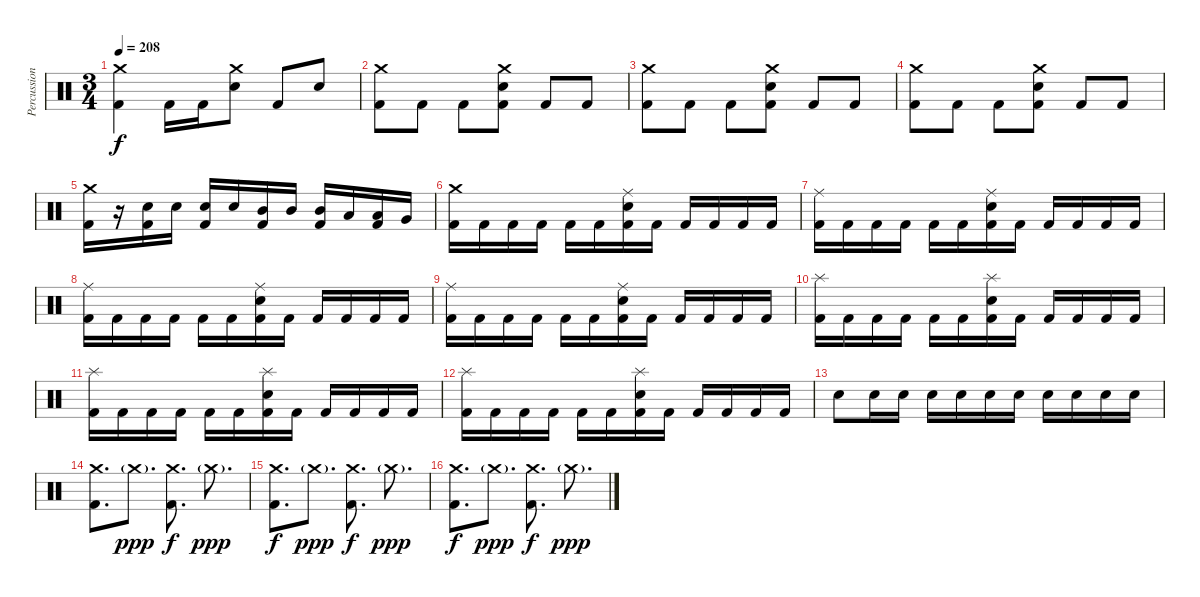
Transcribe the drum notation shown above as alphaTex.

\track ("Percussion" "Percussion") {instrument percussion}
\staff {score}
\articulation defaults
\ts (3 4)
\tempo 208
\clef neutral
\ks c
("Crash medium (hit)" "Kick (hit) 2").4{dy f} "Kick (hit) 2".16 "Kick (hit) 2".16 ("Crash medium (hit)" "Electric Snare (hit)").8 "Kick (hit) 2".8 "Electric Snare (hit)".8 |
("Crash medium (hit)" "Kick (hit) 2").8 "Kick (hit) 2".8 "Kick (hit) 2".8 ("Crash medium (hit)" "Electric Snare (hit)" "Kick (hit) 2").8 "Kick (hit) 2".8 "Kick (hit) 2".8 |
("Crash medium (hit)" "Kick (hit) 2").8 "Kick (hit) 2".8 "Kick (hit) 2".8 ("Crash medium (hit)" "Electric Snare (hit)" "Kick (hit) 2").8 "Kick (hit) 2".8 "Kick (hit) 2".8 |
("Crash medium (hit)" "Kick (hit) 2").8 "Kick (hit) 2".8 "Kick (hit) 2".8 ("Crash medium (hit)" "Electric Snare (hit)" "Kick (hit) 2").8 "Kick (hit) 2".8 "Kick (hit) 2".8 |
("Crash medium (hit)" "Kick (hit) 2").16 r.16 ("Electric Snare (hit)" "Kick (hit) 2").16 "Electric Snare (hit)".16 ("Electric Snare (hit)" "Kick (hit) 2").16 "Electric Snare (hit)".16 ("Mid Tom (hit)" "Kick (hit) 2").16 "Mid Tom (hit)".16 ("Mid Tom (hit)" "Kick (hit) 2").16 "Low Tom (hit)".16 ("Low Tom (hit)" "Kick (hit) 2").16 "Very Low Tom (hit)".16 |
("Crash medium (hit)" "Kick (hit) 2").16 "Kick (hit) 2".16 "Kick (hit) 2".16 "Kick (hit) 2".16 "Kick (hit) 2".16 "Kick (hit) 2".16 ("Ride (middle)" "Electric Snare (hit)" "Kick (hit) 2").16 "Kick (hit) 2".16 "Kick (hit) 2".16 "Kick (hit) 2".16 "Kick (hit) 2".16 "Kick (hit) 2".16 |
("Ride (middle)" "Kick (hit) 2").16 "Kick (hit) 2".16 "Kick (hit) 2".16 "Kick (hit) 2".16 "Kick (hit) 2".16 "Kick (hit) 2".16 ("Ride (middle)" "Electric Snare (hit)" "Kick (hit) 2").16 "Kick (hit) 2".16 "Kick (hit) 2".16 "Kick (hit) 2".16 "Kick (hit) 2".16 "Kick (hit) 2".16 |
("Ride (middle)" "Kick (hit) 2").16 "Kick (hit) 2".16 "Kick (hit) 2".16 "Kick (hit) 2".16 "Kick (hit) 2".16 "Kick (hit) 2".16 ("Ride (middle)" "Electric Snare (hit)" "Kick (hit) 2").16 "Kick (hit) 2".16 "Kick (hit) 2".16 "Kick (hit) 2".16 "Kick (hit) 2".16 "Kick (hit) 2".16 |
("Ride (middle)" "Kick (hit) 2").16 "Kick (hit) 2".16 "Kick (hit) 2".16 "Kick (hit) 2".16 "Kick (hit) 2".16 "Kick (hit) 2".16 ("Ride (middle)" "Electric Snare (hit)" "Kick (hit) 2").16 "Kick (hit) 2".16 "Kick (hit) 2".16 "Kick (hit) 2".16 "Kick (hit) 2".16 "Kick (hit) 2".16 |
("Splash (hit)" "Kick (hit) 2").16 "Kick (hit) 2".16 "Kick (hit) 2".16 "Kick (hit) 2".16 "Kick (hit) 2".16 "Kick (hit) 2".16 ("Splash (hit)" "Electric Snare (hit)" "Kick (hit) 2").16 "Kick (hit) 2".16 "Kick (hit) 2".16 "Kick (hit) 2".16 "Kick (hit) 2".16 "Kick (hit) 2".16 |
("Splash (hit)" "Kick (hit) 2").16 "Kick (hit) 2".16 "Kick (hit) 2".16 "Kick (hit) 2".16 "Kick (hit) 2".16 "Kick (hit) 2".16 ("Splash (hit)" "Electric Snare (hit)" "Kick (hit) 2").16 "Kick (hit) 2".16 "Kick (hit) 2".16 "Kick (hit) 2".16 "Kick (hit) 2".16 "Kick (hit) 2".16 |
("Splash (hit)" "Kick (hit) 2").16 "Kick (hit) 2".16 "Kick (hit) 2".16 "Kick (hit) 2".16 "Kick (hit) 2".16 "Kick (hit) 2".16 ("Splash (hit)" "Electric Snare (hit)" "Kick (hit) 2").16 "Kick (hit) 2".16 "Kick (hit) 2".16 "Kick (hit) 2".16 "Kick (hit) 2".16 "Kick (hit) 2".16 |
"Electric Snare (hit)".8 "Electric Snare (hit)".16 "Electric Snare (hit)".16 "Electric Snare (hit)".16 "Electric Snare (hit)".16 "Electric Snare (hit)".16 "Electric Snare (hit)".16 "Electric Snare (hit)".16 "Electric Snare (hit)".16 "Electric Snare (hit)".16 "Electric Snare (hit)".16 |
("Crash medium (hit)" "Kick (hit) 2").8{d} "Crash medium (hit)"{g}.8{d dy ppp} ("Crash medium (hit)" "Kick (hit) 2").8{d dy f} "Crash medium (hit)"{g}.8{d dy ppp} |
("Crash medium (hit)" "Kick (hit) 2").8{d dy f} "Crash medium (hit)"{g}.8{d dy ppp} ("Crash medium (hit)" "Kick (hit) 2").8{d dy f} "Crash medium (hit)"{g}.8{d dy ppp} |
("Crash medium (hit)" "Kick (hit) 2").8{d dy f} "Crash medium (hit)"{g}.8{d dy ppp} ("Crash medium (hit)" "Kick (hit) 2").8{d dy f} "Crash medium (hit)"{g}.8{d dy ppp}
